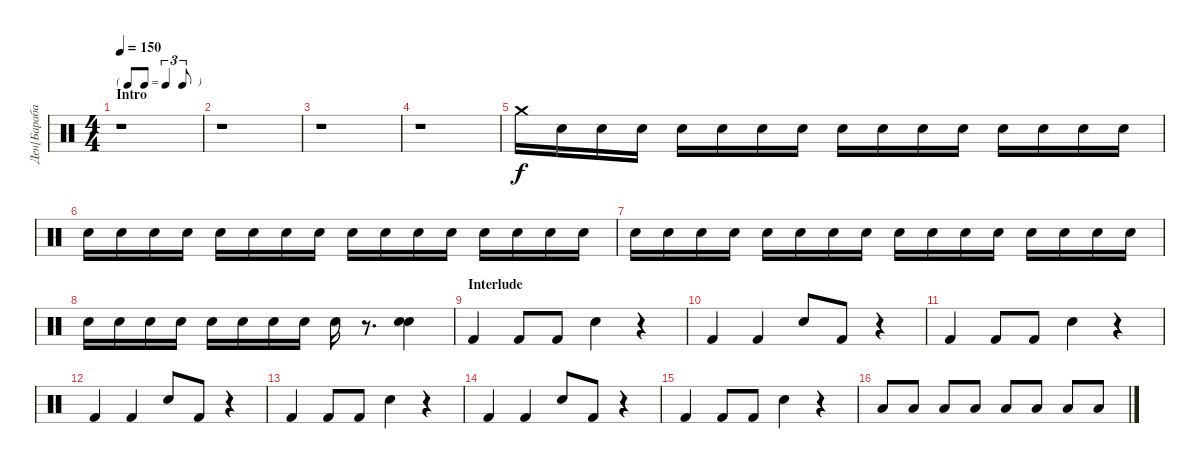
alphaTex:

\track ("Ден[Барабаны]" "Ден[Бараба") {instrument percussion}
\staff {score}
\articulation defaults
\ts (4 4)
\tf triplet8th
\section ("" "Intro")
\tempo 150
\clef neutral
\ks c
r.1{dy f} |
r.1 |
r.1 |
r.1 |
"Crash medium (hit)".16{volume 7} "Electric Snare (hit)".16{volume 6} "Electric Snare (hit)".16 "Electric Snare (hit)".16 "Electric Snare (hit)".16 "Electric Snare (hit)".16 "Electric Snare (hit)".16 "Electric Snare (hit)".16 "Electric Snare (hit)".16 "Electric Snare (hit)".16 "Electric Snare (hit)".16 "Electric Snare (hit)".16 "Electric Snare (hit)".16{volume 8} "Electric Snare (hit)".16 "Electric Snare (hit)".16 "Electric Snare (hit)".16 |
"Electric Snare (hit)".16 "Electric Snare (hit)".16 "Electric Snare (hit)".16 "Electric Snare (hit)".16 "Electric Snare (hit)".16 "Electric Snare (hit)".16 "Electric Snare (hit)".16 "Electric Snare (hit)".16 "Electric Snare (hit)".16{volume 10} "Electric Snare (hit)".16 "Electric Snare (hit)".16 "Electric Snare (hit)".16 "Electric Snare (hit)".16 "Electric Snare (hit)".16 "Electric Snare (hit)".16 "Electric Snare (hit)".16 |
"Electric Snare (hit)".16 "Electric Snare (hit)".16 "Electric Snare (hit)".16 "Electric Snare (hit)".16 "Electric Snare (hit)".16{volume 12} "Electric Snare (hit)".16 "Electric Snare (hit)".16 "Electric Snare (hit)".16 "Electric Snare (hit)".16 "Electric Snare (hit)".16 "Electric Snare (hit)".16 "Electric Snare (hit)".16 "Electric Snare (hit)".16 "Electric Snare (hit)".16 "Electric Snare (hit)".16 "Electric Snare (hit)".16 |
"Electric Snare (hit)".16 "Electric Snare (hit)".16 "Electric Snare (hit)".16 "Electric Snare (hit)".16 "Electric Snare (hit)".16 "Electric Snare (hit)".16 "Electric Snare (hit)".16 "Electric Snare (hit)".16 "Electric Snare (hit)".16 r.8{d} ("Electric Snare (hit)" "Electric Snare (hit)").4 |
\section ("" "Interlude")
"Kick (hit) 2".4{volume 14} "Kick (hit) 2".8 "Kick (hit) 2".8 "Electric Snare (hit)".4 r.4 |
"Kick (hit) 2".4 "Kick (hit) 2".4 "Electric Snare (hit)".8 "Kick (hit) 2".8 r.4 |
"Kick (hit) 2".4 "Kick (hit) 2".8 "Kick (hit) 2".8 "Electric Snare (hit)".4 r.4 |
"Kick (hit) 2".4 "Kick (hit) 2".4 "Electric Snare (hit)".8 "Kick (hit) 2".8 r.4 |
"Kick (hit) 2".4 "Kick (hit) 2".8 "Kick (hit) 2".8 "Electric Snare (hit)".4 r.4 |
"Kick (hit) 2".4 "Kick (hit) 2".4 "Electric Snare (hit)".8 "Kick (hit) 2".8 r.4 |
"Kick (hit) 2".4 "Kick (hit) 2".8 "Kick (hit) 2".8 "Electric Snare (hit)".4 r.4 |
"Low Floor Tom (hit)".8 "Low Floor Tom (hit)".8 "Low Floor Tom (hit)".8 "Low Floor Tom (hit)".8 "Low Floor Tom (hit)".8 "Low Floor Tom (hit)".8 "Low Floor Tom (hit)".8 "Low Floor Tom (hit)".8
